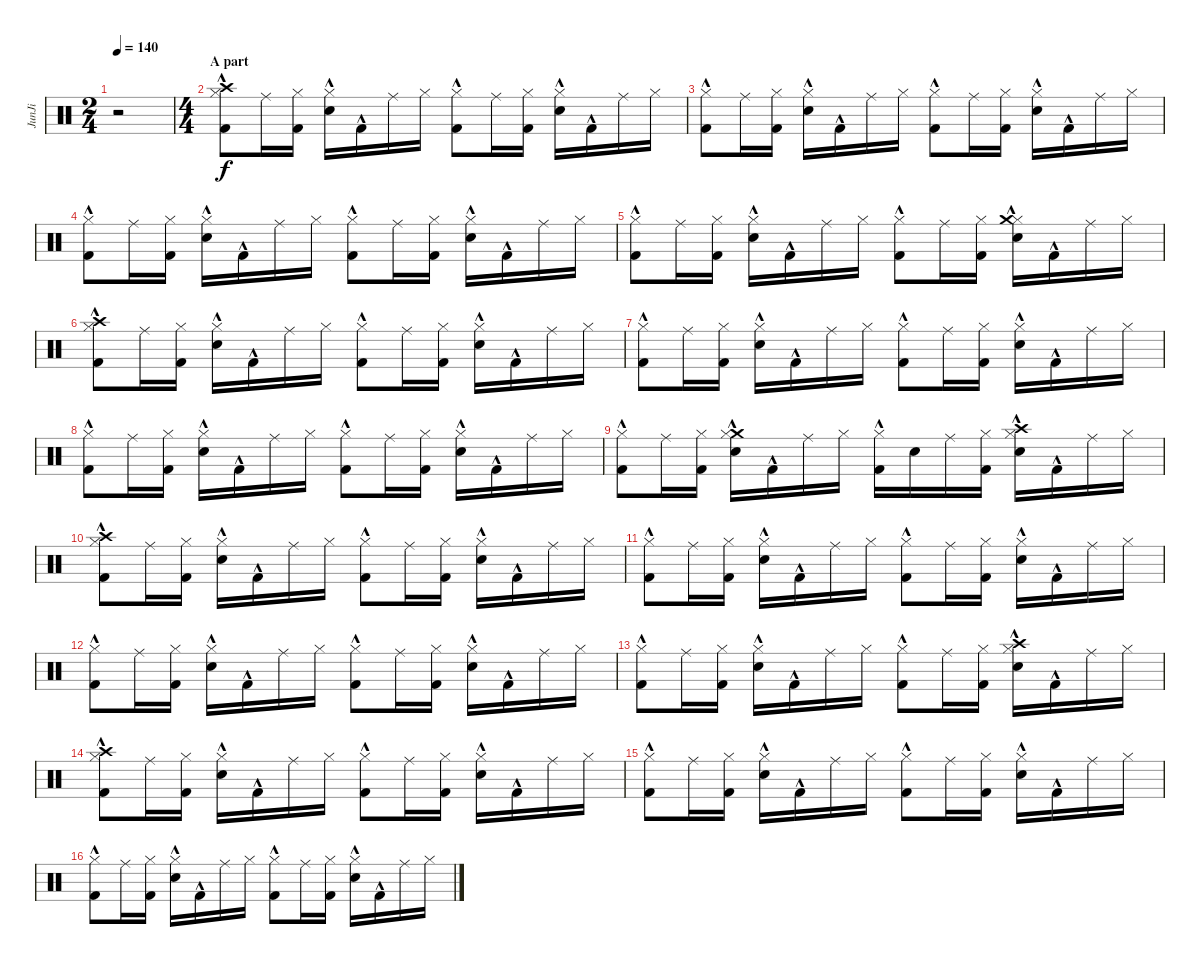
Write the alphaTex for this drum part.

\track ("JunJi" "JunJi") {instrument percussion}
\staff {score}
\articulation defaults
\ts (2 4)
\tempo 140
\clef neutral
\ks c
r.2{dy f} |
\ts (4 4)
\section ("" "A part")
("Hi-Hat (closed)"{hac} "Crash high (hit)" "Kick (hit) 2"{hac}).8 "Ride (middle)".16 ("Hi-Hat (closed)" "Kick (hit) 2").16 ("Electric Snare (hit)" "Hi-Hat (closed)"{hac}).16 "Kick (hit) 2"{hac}.16 "Ride (middle)".16 "Hi-Hat (closed)".16 ("Kick (hit) 2"{hac} "Hi-Hat (closed)"{hac}).8 "Ride (middle)".16 ("Kick (hit) 2" "Hi-Hat (closed)").16 ("Electric Snare (hit)" "Hi-Hat (closed)"{hac}).16 "Kick (hit) 2"{hac}.16 "Ride (middle)".16 "Hi-Hat (closed)".16 |
("Kick (hit) 2"{hac} "Hi-Hat (closed)"{hac}).8 "Ride (middle)".16 ("Hi-Hat (closed)" "Kick (hit) 2").16 ("Hi-Hat (closed)"{hac} "Electric Snare (hit)").16 "Kick (hit) 2"{hac}.16 "Ride (middle)".16 "Hi-Hat (closed)".16 ("Hi-Hat (closed)"{hac} "Kick (hit) 2"{hac}).8 "Ride (middle)".16 ("Kick (hit) 2" "Hi-Hat (closed)").16 ("Hi-Hat (closed)"{hac} "Electric Snare (hit)").16 "Kick (hit) 2"{hac}.16 "Ride (middle)".16 "Hi-Hat (closed)".16 |
("Kick (hit) 2"{hac} "Hi-Hat (closed)"{hac}).8 "Ride (middle)".16 ("Hi-Hat (closed)" "Kick (hit) 2").16 ("Electric Snare (hit)" "Hi-Hat (closed)"{hac}).16 "Kick (hit) 2"{hac}.16 "Ride (middle)".16 "Hi-Hat (closed)".16 ("Kick (hit) 2"{hac} "Hi-Hat (closed)"{hac}).8 "Ride (middle)".16 ("Hi-Hat (closed)" "Kick (hit) 2").16 ("Electric Snare (hit)" "Hi-Hat (closed)"{hac}).16 "Kick (hit) 2"{hac}.16 "Ride (middle)".16 "Hi-Hat (closed)".16 |
("Hi-Hat (closed)"{hac} "Kick (hit) 2"{hac}).8 "Ride (middle)".16 ("Hi-Hat (closed)" "Kick (hit) 2").16 ("Electric Snare (hit)" "Hi-Hat (closed)"{hac}).16 "Kick (hit) 2"{hac}.16 "Ride (middle)".16 "Hi-Hat (closed)".16 ("Hi-Hat (closed)"{hac} "Kick (hit) 2"{hac}).8 "Ride (middle)".16 ("Hi-Hat (closed)" "Kick (hit) 2").16 ("Electric Snare (hit)" "Hi-Hat (closed)"{hac} "Crash medium (hit)").16 "Kick (hit) 2"{hac}.16 "Ride (middle)".16 "Hi-Hat (closed)".16 |
("Crash high (hit)" "Kick (hit) 2"{hac} "Hi-Hat (closed)"{hac}).8 "Ride (middle)".16 ("Kick (hit) 2" "Hi-Hat (closed)").16 ("Electric Snare (hit)" "Hi-Hat (closed)"{hac}).16 "Kick (hit) 2"{hac}.16 "Ride (middle)".16 "Hi-Hat (closed)".16 ("Hi-Hat (closed)"{hac} "Kick (hit) 2"{hac}).8 "Ride (middle)".16 ("Kick (hit) 2" "Hi-Hat (closed)").16 ("Hi-Hat (closed)"{hac} "Electric Snare (hit)").16 "Kick (hit) 2"{hac}.16 "Ride (middle)".16 "Hi-Hat (closed)".16 |
("Hi-Hat (closed)"{hac} "Kick (hit) 2"{hac}).8 "Ride (middle)".16 ("Hi-Hat (closed)" "Kick (hit) 2").16 ("Electric Snare (hit)" "Hi-Hat (closed)"{hac}).16 "Kick (hit) 2"{hac}.16 "Ride (middle)".16 "Hi-Hat (closed)".16 ("Kick (hit) 2"{hac} "Hi-Hat (closed)"{hac}).8 "Ride (middle)".16 ("Hi-Hat (closed)" "Kick (hit) 2").16 ("Electric Snare (hit)" "Hi-Hat (closed)"{hac}).16 "Kick (hit) 2"{hac}.16 "Ride (middle)".16 "Hi-Hat (closed)".16 |
("Kick (hit) 2"{hac} "Hi-Hat (closed)"{hac}).8 "Ride (middle)".16 ("Hi-Hat (closed)" "Kick (hit) 2").16 ("Hi-Hat (closed)"{hac} "Electric Snare (hit)").16 "Kick (hit) 2"{hac}.16 "Ride (middle)".16 "Hi-Hat (closed)".16 ("Kick (hit) 2"{hac} "Hi-Hat (closed)"{hac}).8 "Ride (middle)".16 ("Kick (hit) 2" "Hi-Hat (closed)").16 ("Electric Snare (hit)" "Hi-Hat (closed)"{hac}).16 "Kick (hit) 2"{hac}.16 "Ride (middle)".16 "Hi-Hat (closed)".16 |
("Hi-Hat (closed)"{hac} "Kick (hit) 2"{hac}).8 "Ride (middle)".16 ("Hi-Hat (closed)" "Kick (hit) 2").16 ("Crash medium (hit)" "Electric Snare (hit)" "Hi-Hat (closed)"{hac}).16 "Kick (hit) 2"{hac}.16 "Ride (middle)".16 "Hi-Hat (closed)".16 ("Kick (hit) 2" "Hi-Hat (closed)"{hac}).16 "Electric Snare (hit)".16 "Ride (middle)".16 ("Hi-Hat (closed)" "Kick (hit) 2").16 ("Hi-Hat (closed)"{hac} "Crash high (hit)" "Electric Snare (hit)").16 "Kick (hit) 2"{hac}.16 "Ride (middle)".16 "Hi-Hat (closed)".16 |
("Hi-Hat (closed)"{hac} "Crash high (hit)" "Kick (hit) 2"{hac}).8 "Ride (middle)".16 ("Hi-Hat (closed)" "Kick (hit) 2").16 ("Electric Snare (hit)" "Hi-Hat (closed)"{hac}).16 "Kick (hit) 2"{hac}.16 "Ride (middle)".16 "Hi-Hat (closed)".16 ("Kick (hit) 2"{hac} "Hi-Hat (closed)"{hac}).8 "Ride (middle)".16 ("Kick (hit) 2" "Hi-Hat (closed)").16 ("Electric Snare (hit)" "Hi-Hat (closed)"{hac}).16 "Kick (hit) 2"{hac}.16 "Ride (middle)".16 "Hi-Hat (closed)".16 |
("Kick (hit) 2"{hac} "Hi-Hat (closed)"{hac}).8 "Ride (middle)".16 ("Hi-Hat (closed)" "Kick (hit) 2").16 ("Hi-Hat (closed)"{hac} "Electric Snare (hit)").16 "Kick (hit) 2"{hac}.16 "Ride (middle)".16 "Hi-Hat (closed)".16 ("Hi-Hat (closed)"{hac} "Kick (hit) 2"{hac}).8 "Ride (middle)".16 ("Kick (hit) 2" "Hi-Hat (closed)").16 ("Hi-Hat (closed)"{hac} "Electric Snare (hit)").16 "Kick (hit) 2"{hac}.16 "Ride (middle)".16 "Hi-Hat (closed)".16 |
("Kick (hit) 2"{hac} "Hi-Hat (closed)"{hac}).8 "Ride (middle)".16 ("Hi-Hat (closed)" "Kick (hit) 2").16 ("Electric Snare (hit)" "Hi-Hat (closed)"{hac}).16 "Kick (hit) 2"{hac}.16 "Ride (middle)".16 "Hi-Hat (closed)".16 ("Kick (hit) 2"{hac} "Hi-Hat (closed)"{hac}).8 "Ride (middle)".16 ("Hi-Hat (closed)" "Kick (hit) 2").16 ("Electric Snare (hit)" "Hi-Hat (closed)"{hac}).16 "Kick (hit) 2"{hac}.16 "Ride (middle)".16 "Hi-Hat (closed)".16 |
("Hi-Hat (closed)"{hac} "Kick (hit) 2"{hac}).8 "Ride (middle)".16 ("Hi-Hat (closed)" "Kick (hit) 2").16 ("Electric Snare (hit)" "Hi-Hat (closed)"{hac}).16 "Kick (hit) 2"{hac}.16 "Ride (middle)".16 "Hi-Hat (closed)".16 ("Hi-Hat (closed)"{hac} "Kick (hit) 2"{hac}).8 "Ride (middle)".16 ("Hi-Hat (closed)" "Kick (hit) 2").16 ("Electric Snare (hit)" "Hi-Hat (closed)"{hac} "Crash high (hit)").16 "Kick (hit) 2"{hac}.16 "Ride (middle)".16 "Hi-Hat (closed)".16 |
("Crash high (hit)" "Kick (hit) 2"{hac} "Hi-Hat (closed)"{hac}).8 "Ride (middle)".16 ("Kick (hit) 2" "Hi-Hat (closed)").16 ("Electric Snare (hit)" "Hi-Hat (closed)"{hac}).16 "Kick (hit) 2"{hac}.16 "Ride (middle)".16 "Hi-Hat (closed)".16 ("Hi-Hat (closed)"{hac} "Kick (hit) 2"{hac}).8 "Ride (middle)".16 ("Kick (hit) 2" "Hi-Hat (closed)").16 ("Hi-Hat (closed)"{hac} "Electric Snare (hit)").16 "Kick (hit) 2"{hac}.16 "Ride (middle)".16 "Hi-Hat (closed)".16 |
("Hi-Hat (closed)"{hac} "Kick (hit) 2"{hac}).8 "Ride (middle)".16 ("Hi-Hat (closed)" "Kick (hit) 2").16 ("Electric Snare (hit)" "Hi-Hat (closed)"{hac}).16 "Kick (hit) 2"{hac}.16 "Ride (middle)".16 "Hi-Hat (closed)".16 ("Kick (hit) 2"{hac} "Hi-Hat (closed)"{hac}).8 "Ride (middle)".16 ("Hi-Hat (closed)" "Kick (hit) 2").16 ("Electric Snare (hit)" "Hi-Hat (closed)"{hac}).16 "Kick (hit) 2"{hac}.16 "Ride (middle)".16 "Hi-Hat (closed)".16 |
("Kick (hit) 2"{hac} "Hi-Hat (closed)"{hac}).8 "Ride (middle)".16 ("Hi-Hat (closed)" "Kick (hit) 2").16 ("Hi-Hat (closed)"{hac} "Electric Snare (hit)").16 "Kick (hit) 2"{hac}.16 "Ride (middle)".16 "Hi-Hat (closed)".16 ("Kick (hit) 2"{hac} "Hi-Hat (closed)"{hac}).8 "Ride (middle)".16 ("Kick (hit) 2" "Hi-Hat (closed)").16 ("Electric Snare (hit)" "Hi-Hat (closed)"{hac}).16 "Kick (hit) 2"{hac}.16 "Ride (middle)".16 "Hi-Hat (closed)".16
